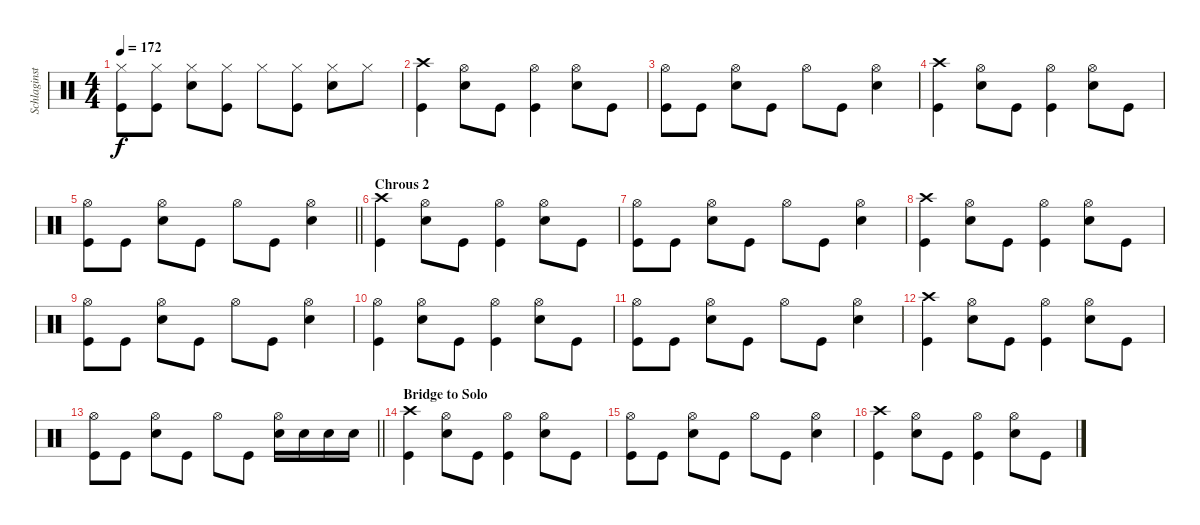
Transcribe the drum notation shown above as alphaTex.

\track ("Schlaginstrumente - Auswahl" "Schlaginst") {instrument percussion}
\staff {score}
\articulation defaults
\ts (4 4)
\tempo 172
\clef neutral
\ks c
("Hi-Hat (closed)" "Kick (hit)").8{dy f} ("Hi-Hat (closed)" "Kick (hit)").8 ("Hi-Hat (closed)" "Snare (hit) 2").8 ("Hi-Hat (closed)" "Kick (hit)").8 "Hi-Hat (closed)".8 ("Hi-Hat (closed)" "Kick (hit)").8 ("Hi-Hat (closed)" "Snare (hit) 2").8 "Hi-Hat (closed)".8 |
("Crash high (hit)" "Kick (hit)").4 ("Hi-Hat (open)" "Snare (hit) 2").8 "Kick (hit)".8 ("Hi-Hat (open)" "Kick (hit)").4 ("Hi-Hat (open)" "Snare (hit) 2").8 "Kick (hit)".8 |
("Hi-Hat (open)" "Kick (hit)").8 "Kick (hit)".8 ("Hi-Hat (open)" "Snare (hit) 2").8 "Kick (hit)".8 "Hi-Hat (open)".8 "Kick (hit)".8 ("Hi-Hat (open)" "Snare (hit) 2").4 |
("Crash high (hit)" "Kick (hit)").4 ("Hi-Hat (open)" "Snare (hit) 2").8 "Kick (hit)".8 ("Hi-Hat (open)" "Kick (hit)").4 ("Hi-Hat (open)" "Snare (hit) 2").8 "Kick (hit)".8 |
\barLineRight lightlight
("Hi-Hat (open)" "Kick (hit)").8 "Kick (hit)".8 ("Hi-Hat (open)" "Snare (hit) 2").8 "Kick (hit)".8 "Hi-Hat (open)".8 "Kick (hit)".8 ("Hi-Hat (open)" "Snare (hit) 2").4 |
\section ("" "Chrous 2")
("Crash high (hit)" "Kick (hit)").4 ("Hi-Hat (open)" "Snare (hit) 2").8 "Kick (hit)".8 ("Hi-Hat (open)" "Kick (hit)").4 ("Hi-Hat (open)" "Snare (hit) 2").8 "Kick (hit)".8 |
("Hi-Hat (open)" "Kick (hit)").8 "Kick (hit)".8 ("Hi-Hat (open)" "Snare (hit) 2").8 "Kick (hit)".8 "Hi-Hat (open)".8 "Kick (hit)".8 ("Hi-Hat (open)" "Snare (hit) 2").4 |
("Crash high (hit)" "Kick (hit)").4 ("Hi-Hat (open)" "Snare (hit) 2").8 "Kick (hit)".8 ("Hi-Hat (open)" "Kick (hit)").4 ("Hi-Hat (open)" "Snare (hit) 2").8 "Kick (hit)".8 |
("Hi-Hat (open)" "Kick (hit)").8 "Kick (hit)".8 ("Hi-Hat (open)" "Snare (hit) 2").8 "Kick (hit)".8 "Hi-Hat (open)".8 "Kick (hit)".8 ("Hi-Hat (open)" "Snare (hit) 2").4 |
("Hi-Hat (open)" "Kick (hit)").4 ("Hi-Hat (open)" "Snare (hit) 2").8 "Kick (hit)".8 ("Hi-Hat (open)" "Kick (hit)").4 ("Hi-Hat (open)" "Snare (hit) 2").8 "Kick (hit)".8 |
("Hi-Hat (open)" "Kick (hit)").8 "Kick (hit)".8 ("Hi-Hat (open)" "Snare (hit) 2").8 "Kick (hit)".8 "Hi-Hat (open)".8 "Kick (hit)".8 ("Hi-Hat (open)" "Snare (hit) 2").4 |
("Crash high (hit)" "Kick (hit)").4 ("Hi-Hat (open)" "Snare (hit) 2").8 "Kick (hit)".8 ("Hi-Hat (open)" "Kick (hit)").4 ("Hi-Hat (open)" "Snare (hit) 2").8 "Kick (hit)".8 |
\barLineRight lightlight
("Hi-Hat (open)" "Kick (hit)").8 "Kick (hit)".8 ("Hi-Hat (open)" "Snare (hit) 2").8 "Kick (hit)".8 "Hi-Hat (open)".8 "Kick (hit)".8 ("Hi-Hat (open)" "Snare (hit) 2").16 "Snare (hit) 2".16 "Snare (hit) 2".16 "Snare (hit) 2".16 |
\section ("" "Bridge to Solo")
("Crash high (hit)" "Kick (hit)").4 ("Hi-Hat (open)" "Snare (hit) 2").8 "Kick (hit)".8 ("Hi-Hat (open)" "Kick (hit)").4 ("Hi-Hat (open)" "Snare (hit) 2").8 "Kick (hit)".8 |
("Hi-Hat (open)" "Kick (hit)").8 "Kick (hit)".8 ("Hi-Hat (open)" "Snare (hit) 2").8 "Kick (hit)".8 "Hi-Hat (open)".8 "Kick (hit)".8 ("Hi-Hat (open)" "Snare (hit) 2").4 |
("Crash high (hit)" "Kick (hit)").4 ("Hi-Hat (open)" "Snare (hit) 2").8 "Kick (hit)".8 ("Hi-Hat (open)" "Kick (hit)").4 ("Hi-Hat (open)" "Snare (hit) 2").8 "Kick (hit)".8
